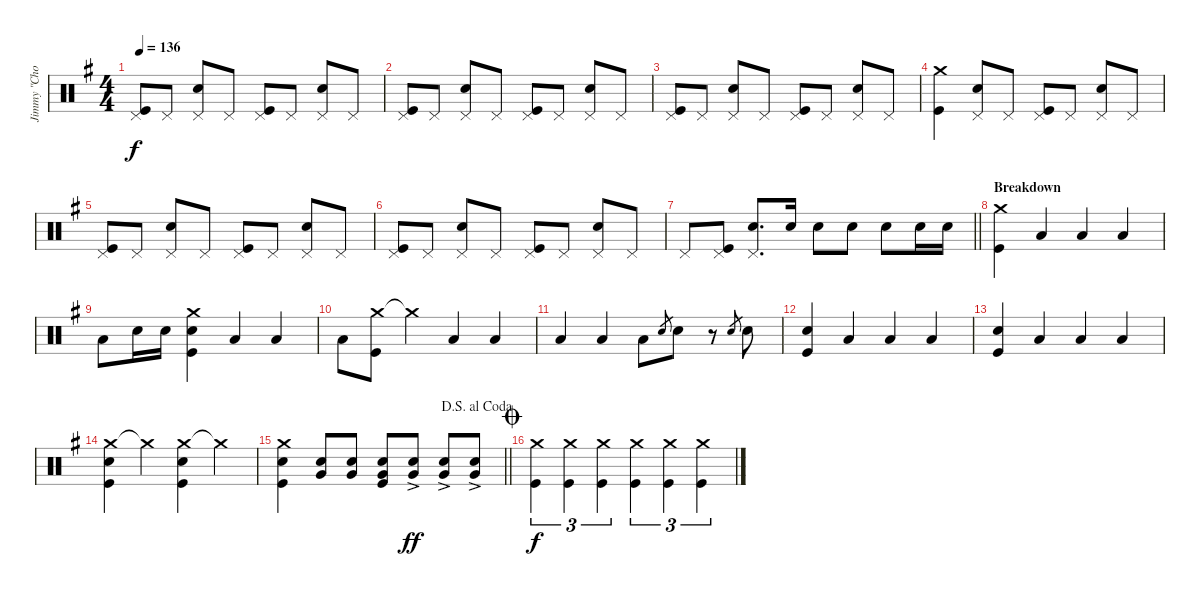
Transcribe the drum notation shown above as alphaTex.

\track ("Jimmy \"Chocolate\" Chalfant" "Jimmy \"Cho") {instrument percussion}
\staff {score}
\articulation defaults
\ts (4 4)
\tempo 136
\clef neutral
\ks g
("Pedal Hi-Hat (hit)" "Kick (hit)").8{dy f} "Pedal Hi-Hat (hit)".8 ("Pedal Hi-Hat (hit)" "Snare (hit) 2").8 "Pedal Hi-Hat (hit)".8 ("Pedal Hi-Hat (hit)" "Kick (hit)").8 "Pedal Hi-Hat (hit)".8 ("Pedal Hi-Hat (hit)" "Snare (hit) 2").8 "Pedal Hi-Hat (hit)".8 |
("Pedal Hi-Hat (hit)" "Kick (hit)").8 "Pedal Hi-Hat (hit)".8 ("Pedal Hi-Hat (hit)" "Snare (hit) 2").8 "Pedal Hi-Hat (hit)".8 ("Pedal Hi-Hat (hit)" "Kick (hit)").8 "Pedal Hi-Hat (hit)".8 ("Pedal Hi-Hat (hit)" "Snare (hit) 2").8 "Pedal Hi-Hat (hit)".8 |
("Pedal Hi-Hat (hit)" "Kick (hit)").8 "Pedal Hi-Hat (hit)".8 ("Pedal Hi-Hat (hit)" "Snare (hit) 2").8 "Pedal Hi-Hat (hit)".8 ("Pedal Hi-Hat (hit)" "Kick (hit)").8 "Pedal Hi-Hat (hit)".8 ("Pedal Hi-Hat (hit)" "Snare (hit) 2").8 "Pedal Hi-Hat (hit)".8 |
("Crash medium (hit)" "Kick (hit)").4 ("Pedal Hi-Hat (hit)" "Snare (hit) 2").8 "Pedal Hi-Hat (hit)".8 ("Pedal Hi-Hat (hit)" "Kick (hit)").8 "Pedal Hi-Hat (hit)".8 ("Pedal Hi-Hat (hit)" "Snare (hit) 2").8 "Pedal Hi-Hat (hit)".8 |
("Pedal Hi-Hat (hit)" "Kick (hit)").8 "Pedal Hi-Hat (hit)".8 ("Pedal Hi-Hat (hit)" "Snare (hit) 2").8 "Pedal Hi-Hat (hit)".8 ("Pedal Hi-Hat (hit)" "Kick (hit)").8 "Pedal Hi-Hat (hit)".8 ("Pedal Hi-Hat (hit)" "Snare (hit) 2").8 "Pedal Hi-Hat (hit)".8 |
("Pedal Hi-Hat (hit)" "Kick (hit)").8 "Pedal Hi-Hat (hit)".8 ("Pedal Hi-Hat (hit)" "Snare (hit) 2").8 "Pedal Hi-Hat (hit)".8 ("Pedal Hi-Hat (hit)" "Kick (hit)").8 "Pedal Hi-Hat (hit)".8 ("Pedal Hi-Hat (hit)" "Snare (hit) 2").8 "Pedal Hi-Hat (hit)".8 |
\barLineRight lightlight "Pedal Hi-Hat (hit)".8
("Pedal Hi-Hat (hit)" "Kick (hit)").8 ("Pedal Hi-Hat (hit)" "Snare (hit) 2").8{d} "Snare (hit) 2".16 "Snare (hit) 2".8 "Snare (hit) 2".8 "Snare (hit) 2".8 "Snare (hit) 2".16 "Snare (hit) 2".16 |
\section ("" "Breakdown")
("Crash medium (hit)" "Kick (hit)").4 "Low Floor Tom (hit)".4 "Low Floor Tom (hit)".4 "Low Floor Tom (hit)".4 |
"Low Floor Tom (hit)".8 "Snare (hit) 2".16 "Snare (hit) 2".16 ("Crash medium (hit)" "Snare (hit) 2" "Kick (hit)").4 "Low Floor Tom (hit)".4 "Low Floor Tom (hit)".4 |
"Low Floor Tom (hit)".8 ("Crash medium (hit)" "Kick (hit)").8 "Crash medium (hit)"{t}.4 "Low Floor Tom (hit)".4 "Low Floor Tom (hit)".4 |
"Low Floor Tom (hit)".4 "Low Floor Tom (hit)".4 "Low Floor Tom (hit)".8 "Snare (hit) 2".8{gr} "Snare (hit) 2".8 r.8 "Snare (hit) 2".8{gr} "Snare (hit) 2".8 |
("Snare (hit) 2" "Kick (hit)").4 "Low Floor Tom (hit)".4 "Low Floor Tom (hit)".4 "Low Floor Tom (hit)".4 |
("Snare (hit) 2" "Kick (hit)").4 "Low Floor Tom (hit)".4 "Low Floor Tom (hit)".4 "Low Floor Tom (hit)".4 |
("Crash medium (hit)" "Snare (hit) 2" "Kick (hit)").4 "Crash medium (hit)"{t}.4 ("Crash medium (hit)" "Snare (hit) 2" "Kick (hit)").4 "Crash medium (hit)"{t}.4 |
\jump dalsegnoalcoda
\barLineRight lightlight
("Crash medium (hit)" "Snare (hit) 2" "Kick (hit)").4 ("Snare (hit) 2" "Very Low Tom (hit)").8 ("Snare (hit) 2" "Very Low Tom (hit)").8 ("Snare (hit) 2" "Very Low Tom (hit)" "Kick (hit)").8 ("Snare (hit) 2"{ac} "Very Low Tom (hit)"{ac}).8{dy ff} ("Snare (hit) 2"{ac} "Very Low Tom (hit)"{ac}).8 ("Snare (hit) 2"{ac} "Very Low Tom (hit)"{ac}).8 |
\jump coda
("Crash medium (hit)" "Kick (hit)").4{tu (3 2) dy f} ("Crash medium (hit)" "Kick (hit)").4{tu (3 2)} ("Crash medium (hit)" "Kick (hit)").4{tu (3 2)} ("Crash medium (hit)" "Kick (hit)").4{tu (3 2)} ("Crash medium (hit)" "Kick (hit)").4{tu (3 2)} ("Crash medium (hit)" "Kick (hit)").4{tu (3 2)}
